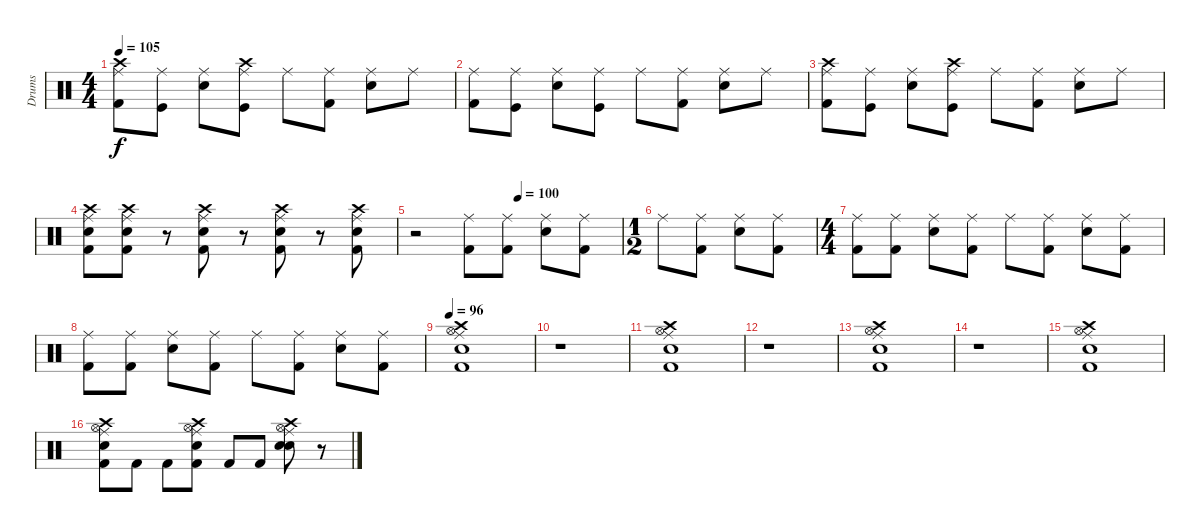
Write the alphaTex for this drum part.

\track ("Drums" "Drums") {instrument percussion}
\staff {score}
\articulation defaults
\ts (4 4)
\tempo 105
\clef neutral
\ks c
("Ride (middle)" "Crash high (hit)" "Kick (hit) 2").8{dy f} ("Ride (middle)" "Kick (hit)").8 ("Ride (middle)" "Snare (hit) 2").8 ("Ride (middle)" "Crash high (hit)" "Kick (hit)").8 "Ride (middle)".8 ("Ride (middle)" "Kick (hit) 2").8 ("Ride (middle)" "Snare (hit) 2").8 "Ride (middle)".8 |
("Ride (middle)" "Kick (hit) 2").8 ("Ride (middle)" "Kick (hit)").8 ("Ride (middle)" "Snare (hit) 2").8 ("Ride (middle)" "Kick (hit)").8 "Ride (middle)".8 ("Ride (middle)" "Kick (hit) 2").8 ("Ride (middle)" "Snare (hit) 2").8 "Ride (middle)".8 |
("Ride (middle)" "Crash high (hit)" "Kick (hit) 2").8 ("Ride (middle)" "Kick (hit)").8 ("Ride (middle)" "Snare (hit) 2").8 ("Ride (middle)" "Crash high (hit)" "Kick (hit)").8 "Ride (middle)".8 ("Ride (middle)" "Kick (hit) 2").8 ("Ride (middle)" "Snare (hit) 2").8 "Ride (middle)".8 |
("Crash high (hit)" "Ride (middle)" "Snare (hit) 2" "Kick (hit) 2").8 ("Crash high (hit)" "Ride (middle)" "Snare (hit) 2" "Kick (hit) 2").8 r.8 ("Crash high (hit)" "Ride (middle)" "Snare (hit) 2" "Kick (hit) 2").8 r.8 ("Crash high (hit)" "Ride (middle)" "Snare (hit) 2" "Kick (hit) 2").8 r.8 ("Crash high (hit)" "Ride (middle)" "Snare (hit) 2" "Kick (hit) 2").8 |
\tempo (100 0.5)
r.2 ("Ride (middle)" "Kick (hit) 2").8 ("Ride (middle)" "Kick (hit) 2").8 ("Ride (middle)" "Snare (hit) 2").8 ("Ride (middle)" "Kick (hit) 2").8 |
\ts (1 2)
"Ride (middle)".8 ("Ride (middle)" "Kick (hit) 2").8 ("Ride (middle)" "Snare (hit) 2").8 ("Ride (middle)" "Kick (hit) 2").8 |
\ts (4 4)
("Ride (middle)" "Kick (hit) 2").8 ("Ride (middle)" "Kick (hit) 2").8 ("Ride (middle)" "Snare (hit) 2").8 ("Ride (middle)" "Kick (hit) 2").8 "Ride (middle)".8 ("Ride (middle)" "Kick (hit) 2").8 ("Ride (middle)" "Snare (hit) 2").8 ("Ride (middle)" "Kick (hit) 2").8 |
("Ride (middle)" "Kick (hit) 2").8 ("Ride (middle)" "Kick (hit) 2").8 ("Ride (middle)" "Snare (hit) 2").8 ("Ride (middle)" "Kick (hit) 2").8 "Ride (middle)".8 ("Ride (middle)" "Kick (hit) 2").8 ("Ride (middle)" "Snare (hit) 2").8 ("Ride (middle)" "Kick (hit) 2").8 |
\tempo 96
("Ride (middle)" "Hi-Hat (open)" "Crash high (hit)" "Snare (hit) 2" "Kick (hit) 2").1 |
r.1 |
("Ride (middle)" "Hi-Hat (open)" "Crash high (hit)" "Snare (hit) 2" "Kick (hit) 2").1 |
r.1 |
("Ride (middle)" "Hi-Hat (open)" "Crash high (hit)" "Snare (hit) 2" "Kick (hit) 2").1 |
r.1 |
("Ride (middle)" "Hi-Hat (open)" "Crash high (hit)" "Snare (hit) 2" "Kick (hit) 2").1 |
("Ride (middle)" "Hi-Hat (open)" "Crash high (hit)" "Snare (hit) 2" "Kick (hit) 2").8 "Kick (hit) 2".8 "Kick (hit) 2".8 ("Ride (middle)" "Hi-Hat (open)" "Crash high (hit)" "Snare (hit) 2" "Kick (hit) 2").8 "Kick (hit) 2".8 "Kick (hit) 2".8 ("Ride (middle)" "Hi-Hat (open)" "Crash high (hit)" "Snare (hit) 2" "Electric Snare (hit)").8 r.8
